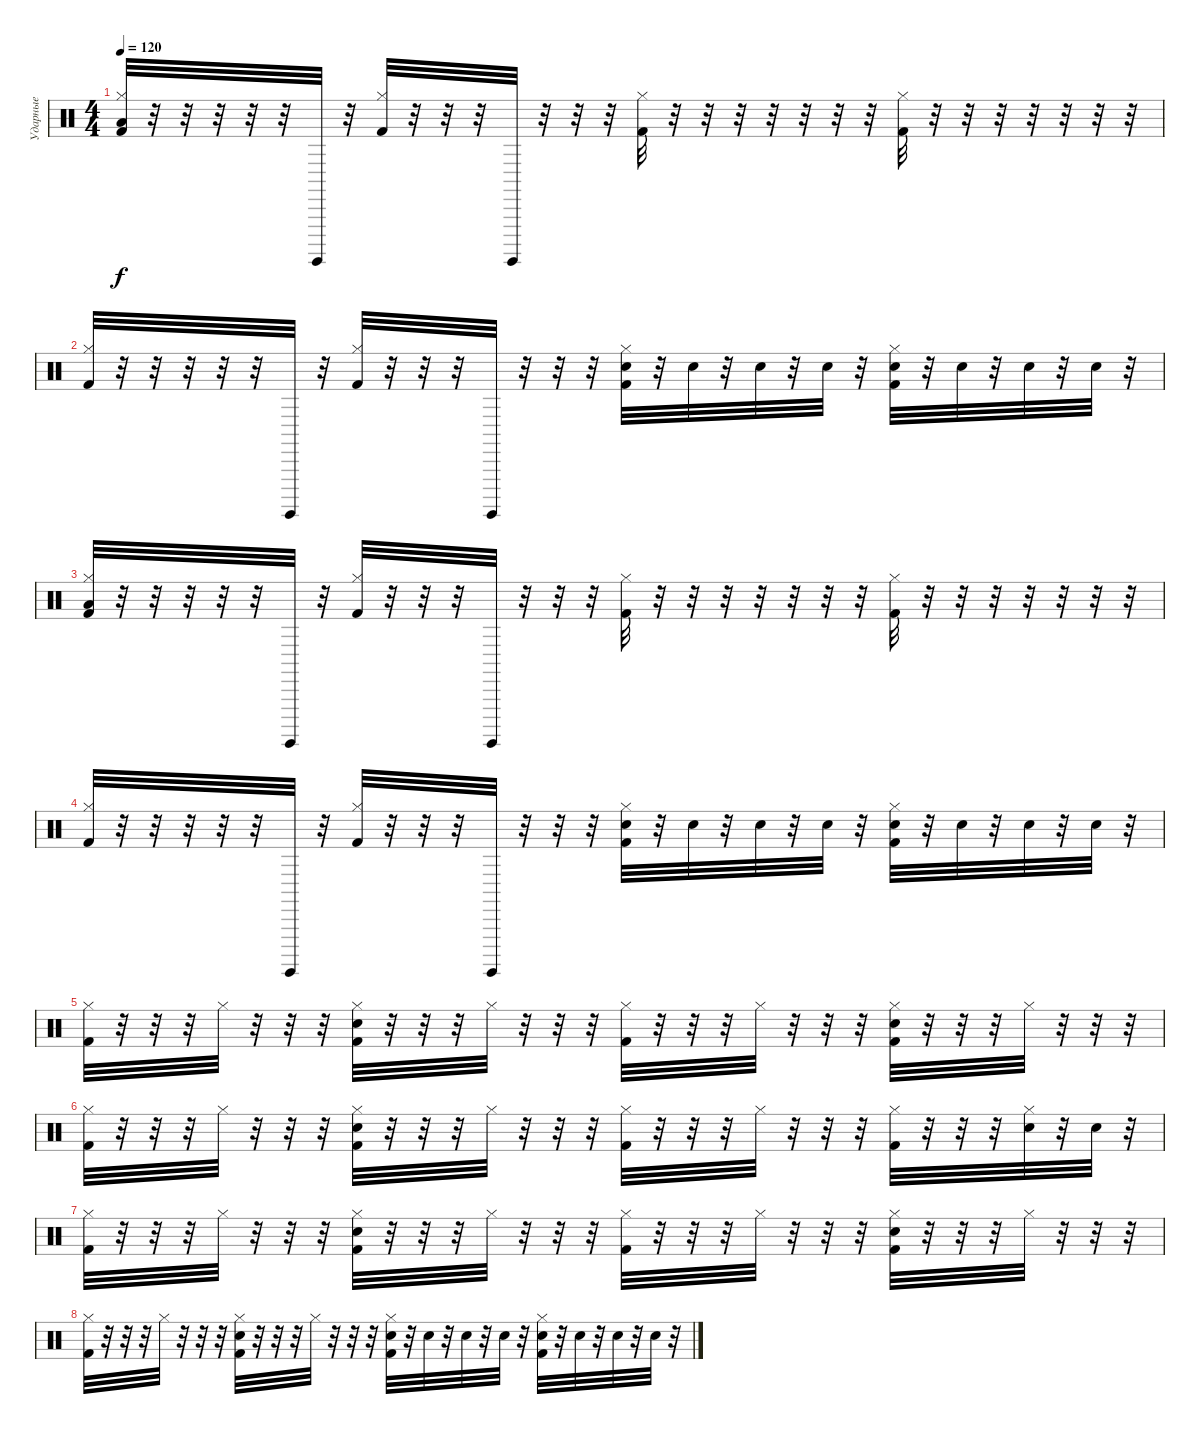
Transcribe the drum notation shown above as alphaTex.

\track ("Ударные" "Ударные") {instrument percussion}
\staff {score}
\articulation defaults
\ts (4 4)
\tempo 120
\clef neutral
\ks c
("Hi-Hat (closed)" "Kick (hit) 2" "Low Floor Tom (hit)").32{dy f} r.32 r.32 r.32 r.32 r.32 "Surdo (hit)".32 r.32 ("Hi-Hat (closed)" "Kick (hit) 2").32 r.32 r.32 r.32 "Surdo (hit)".32 r.32 r.32 r.32 ("Hi-Hat (closed)" "Kick (hit) 2").32 r.32 r.32 r.32 r.32 r.32 r.32 r.32 ("Kick (hit) 2" "Hi-Hat (closed)").32 r.32 r.32 r.32 r.32 r.32 r.32 r.32 |
("Hi-Hat (closed)" "Kick (hit) 2").32 r.32 r.32 r.32 r.32 r.32 "Surdo (hit)".32 r.32 ("Hi-Hat (closed)" "Kick (hit) 2").32 r.32 r.32 r.32 "Surdo (hit)".32 r.32 r.32 r.32 ("Hi-Hat (closed)" "Kick (hit) 2" "Snare (hit) 2").32 r.32 "Snare (hit) 2".32 r.32 "Snare (hit) 2".32 r.32 "Snare (hit) 2".32 r.32 ("Snare (hit) 2" "Kick (hit) 2" "Hi-Hat (closed)").32 r.32 "Snare (hit) 2".32 r.32 "Snare (hit) 2".32 r.32 "Snare (hit) 2".32 r.32 |
("Hi-Hat (closed)" "Kick (hit) 2" "Low Floor Tom (hit)").32 r.32 r.32 r.32 r.32 r.32 "Surdo (hit)".32 r.32 ("Hi-Hat (closed)" "Kick (hit) 2").32 r.32 r.32 r.32 "Surdo (hit)".32 r.32 r.32 r.32 ("Hi-Hat (closed)" "Kick (hit) 2").32 r.32 r.32 r.32 r.32 r.32 r.32 r.32 ("Kick (hit) 2" "Hi-Hat (closed)").32 r.32 r.32 r.32 r.32 r.32 r.32 r.32 |
("Hi-Hat (closed)" "Kick (hit) 2").32 r.32 r.32 r.32 r.32 r.32 "Surdo (hit)".32 r.32 ("Hi-Hat (closed)" "Kick (hit) 2").32 r.32 r.32 r.32 "Surdo (hit)".32 r.32 r.32 r.32 ("Hi-Hat (closed)" "Kick (hit) 2" "Snare (hit) 2").32 r.32 "Snare (hit) 2".32 r.32 "Snare (hit) 2".32 r.32 "Snare (hit) 2".32 r.32 ("Snare (hit) 2" "Kick (hit) 2" "Hi-Hat (closed)").32 r.32 "Snare (hit) 2".32 r.32 "Snare (hit) 2".32 r.32 "Snare (hit) 2".32 r.32 |
("Hi-Hat (closed)" "Kick (hit) 2").32 r.32 r.32 r.32 "Hi-Hat (closed)".32 r.32 r.32 r.32 ("Hi-Hat (closed)" "Kick (hit) 2" "Snare (hit) 2").32 r.32 r.32 r.32 "Hi-Hat (closed)".32 r.32 r.32 r.32 ("Hi-Hat (closed)" "Kick (hit) 2").32 r.32 r.32 r.32 "Hi-Hat (closed)".32 r.32 r.32 r.32 ("Snare (hit) 2" "Kick (hit) 2" "Hi-Hat (closed)").32 r.32 r.32 r.32 "Hi-Hat (closed)".32 r.32 r.32 r.32 |
("Hi-Hat (closed)" "Kick (hit) 2").32 r.32 r.32 r.32 "Hi-Hat (closed)".32 r.32 r.32 r.32 ("Hi-Hat (closed)" "Kick (hit) 2" "Snare (hit) 2").32 r.32 r.32 r.32 "Hi-Hat (closed)".32 r.32 r.32 r.32 ("Hi-Hat (closed)" "Kick (hit) 2").32 r.32 r.32 r.32 "Hi-Hat (closed)".32 r.32 r.32 r.32 ("Kick (hit) 2" "Hi-Hat (closed)").32 r.32 r.32 r.32 ("Snare (hit) 2" "Hi-Hat (closed)").32 r.32 "Snare (hit) 2".32 r.32 |
("Hi-Hat (closed)" "Kick (hit) 2").32 r.32 r.32 r.32 "Hi-Hat (closed)".32 r.32 r.32 r.32 ("Hi-Hat (closed)" "Kick (hit) 2" "Snare (hit) 2").32 r.32 r.32 r.32 "Hi-Hat (closed)".32 r.32 r.32 r.32 ("Hi-Hat (closed)" "Kick (hit) 2").32 r.32 r.32 r.32 "Hi-Hat (closed)".32 r.32 r.32 r.32 ("Snare (hit) 2" "Kick (hit) 2" "Hi-Hat (closed)").32 r.32 r.32 r.32 "Hi-Hat (closed)".32 r.32 r.32 r.32 |
("Hi-Hat (closed)" "Kick (hit) 2").32 r.32 r.32 r.32 "Hi-Hat (closed)".32 r.32 r.32 r.32 ("Hi-Hat (closed)" "Kick (hit) 2" "Snare (hit) 2").32 r.32 r.32 r.32 "Hi-Hat (closed)".32 r.32 r.32 r.32 ("Hi-Hat (closed)" "Kick (hit) 2" "Snare (hit) 2").32 r.32 "Snare (hit) 2".32 r.32 "Snare (hit) 2".32 r.32 "Snare (hit) 2".32 r.32 ("Snare (hit) 2" "Kick (hit) 2" "Hi-Hat (closed)").32 r.32 "Snare (hit) 2".32 r.32 "Snare (hit) 2".32 r.32 "Snare (hit) 2".32 r.32
